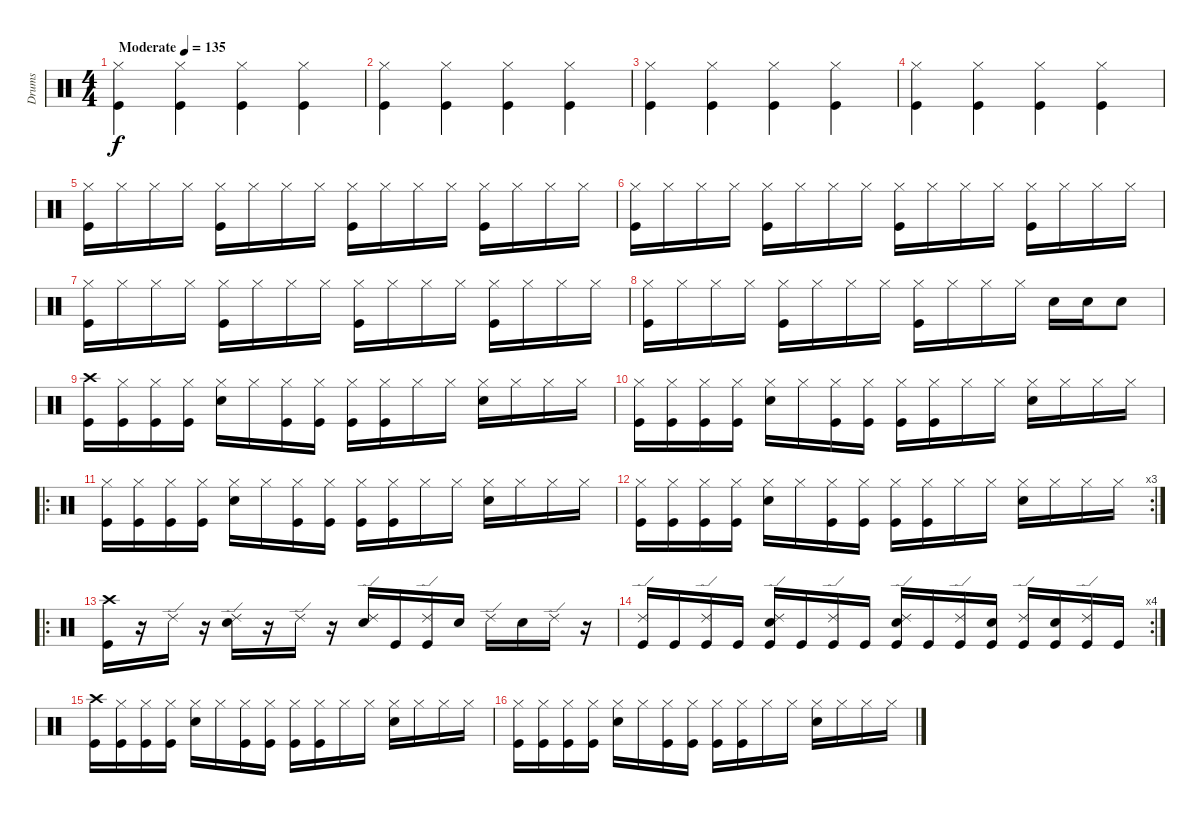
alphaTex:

\track ("Drums" "Drums") {instrument percussion}
\staff {score}
\articulation defaults
\ts (4 4)
\tempo (135 "Moderate")
\clef neutral
\ks c
("Hi-Hat (closed)" "Kick (hit)").4{dy f} ("Hi-Hat (closed)" "Kick (hit)").4 ("Hi-Hat (closed)" "Kick (hit)").4 ("Hi-Hat (closed)" "Kick (hit)").4 |
("Hi-Hat (closed)" "Kick (hit)").4 ("Hi-Hat (closed)" "Kick (hit)").4 ("Hi-Hat (closed)" "Kick (hit)").4 ("Hi-Hat (closed)" "Kick (hit)").4 |
("Hi-Hat (closed)" "Kick (hit)").4 ("Hi-Hat (closed)" "Kick (hit)").4 ("Hi-Hat (closed)" "Kick (hit)").4 ("Hi-Hat (closed)" "Kick (hit)").4 |
("Hi-Hat (closed)" "Kick (hit)").4 ("Hi-Hat (closed)" "Kick (hit)").4 ("Hi-Hat (closed)" "Kick (hit)").4 ("Hi-Hat (closed)" "Kick (hit)").4 |
("Hi-Hat (closed)" "Kick (hit)").16 "Hi-Hat (closed)".16 "Hi-Hat (closed)".16 "Hi-Hat (closed)".16 ("Hi-Hat (closed)" "Kick (hit)").16 "Hi-Hat (closed)".16 "Hi-Hat (closed)".16 "Hi-Hat (closed)".16 ("Hi-Hat (closed)" "Kick (hit)").16 "Hi-Hat (closed)".16 "Hi-Hat (closed)".16 "Hi-Hat (closed)".16 ("Hi-Hat (closed)" "Kick (hit)").16 "Hi-Hat (closed)".16 "Hi-Hat (closed)".16 "Hi-Hat (closed)".16 |
("Hi-Hat (closed)" "Kick (hit)").16 "Hi-Hat (closed)".16 "Hi-Hat (closed)".16 "Hi-Hat (closed)".16 ("Hi-Hat (closed)" "Kick (hit)").16 "Hi-Hat (closed)".16 "Hi-Hat (closed)".16 "Hi-Hat (closed)".16 ("Hi-Hat (closed)" "Kick (hit)").16 "Hi-Hat (closed)".16 "Hi-Hat (closed)".16 "Hi-Hat (closed)".16 ("Hi-Hat (closed)" "Kick (hit)").16 "Hi-Hat (closed)".16 "Hi-Hat (closed)".16 "Hi-Hat (closed)".16 |
("Hi-Hat (closed)" "Kick (hit)").16 "Hi-Hat (closed)".16 "Hi-Hat (closed)".16 "Hi-Hat (closed)".16 ("Hi-Hat (closed)" "Kick (hit)").16 "Hi-Hat (closed)".16 "Hi-Hat (closed)".16 "Hi-Hat (closed)".16 ("Hi-Hat (closed)" "Kick (hit)").16 "Hi-Hat (closed)".16 "Hi-Hat (closed)".16 "Hi-Hat (closed)".16 ("Hi-Hat (closed)" "Kick (hit)").16 "Hi-Hat (closed)".16 "Hi-Hat (closed)".16 "Hi-Hat (closed)".16 |
("Hi-Hat (closed)" "Kick (hit)").16 "Hi-Hat (closed)".16 "Hi-Hat (closed)".16 "Hi-Hat (closed)".16 ("Hi-Hat (closed)" "Kick (hit)").16 "Hi-Hat (closed)".16 "Hi-Hat (closed)".16 "Hi-Hat (closed)".16 ("Hi-Hat (closed)" "Kick (hit)").16 "Hi-Hat (closed)".16 "Hi-Hat (closed)".16 "Hi-Hat (closed)".16 "Snare (hit) 2".16 "Snare (hit) 2".16 "Snare (hit) 2".8 |
("Crash high (hit)" "Kick (hit)").16 ("Hi-Hat (closed)" "Kick (hit)").16 ("Hi-Hat (closed)" "Kick (hit)").16 ("Hi-Hat (closed)" "Kick (hit)").16 ("Hi-Hat (closed)" "Snare (hit) 2").16 "Hi-Hat (closed)".16 ("Hi-Hat (closed)" "Kick (hit)").16 ("Hi-Hat (closed)" "Kick (hit)").16 ("Hi-Hat (closed)" "Kick (hit)").16 ("Hi-Hat (closed)" "Kick (hit)").16 "Hi-Hat (closed)".16 "Hi-Hat (closed)".16 ("Hi-Hat (closed)" "Snare (hit) 2").16 "Hi-Hat (closed)".16 "Hi-Hat (closed)".16 "Hi-Hat (closed)".16 |
("Hi-Hat (closed)" "Kick (hit)").16 ("Hi-Hat (closed)" "Kick (hit)").16 ("Hi-Hat (closed)" "Kick (hit)").16 ("Hi-Hat (closed)" "Kick (hit)").16 ("Hi-Hat (closed)" "Snare (hit) 2").16 "Hi-Hat (closed)".16 ("Hi-Hat (closed)" "Kick (hit)").16 ("Hi-Hat (closed)" "Kick (hit)").16 ("Hi-Hat (closed)" "Kick (hit)").16 ("Hi-Hat (closed)" "Kick (hit)").16 "Hi-Hat (closed)".16 "Hi-Hat (closed)".16 ("Hi-Hat (closed)" "Snare (hit) 2").16 "Hi-Hat (closed)".16 "Hi-Hat (closed)".16 "Hi-Hat (closed)".16 |
\ro
("Hi-Hat (closed)" "Kick (hit)").16 ("Hi-Hat (closed)" "Kick (hit)").16 ("Hi-Hat (closed)" "Kick (hit)").16 ("Hi-Hat (closed)" "Kick (hit)").16 ("Hi-Hat (closed)" "Snare (hit) 2").16 "Hi-Hat (closed)".16 ("Hi-Hat (closed)" "Kick (hit)").16 ("Hi-Hat (closed)" "Kick (hit)").16 ("Hi-Hat (closed)" "Kick (hit)").16 ("Hi-Hat (closed)" "Kick (hit)").16 "Hi-Hat (closed)".16 "Hi-Hat (closed)".16 ("Hi-Hat (closed)" "Snare (hit) 2").16 "Hi-Hat (closed)".16 "Hi-Hat (closed)".16 "Hi-Hat (closed)".16 |
\rc 3
("Hi-Hat (closed)" "Kick (hit)").16 ("Hi-Hat (closed)" "Kick (hit)").16 ("Hi-Hat (closed)" "Kick (hit)").16 ("Hi-Hat (closed)" "Kick (hit)").16 ("Hi-Hat (closed)" "Snare (hit) 2").16 "Hi-Hat (closed)".16 ("Hi-Hat (closed)" "Kick (hit)").16 ("Hi-Hat (closed)" "Kick (hit)").16 ("Hi-Hat (closed)" "Kick (hit)").16 ("Hi-Hat (closed)" "Kick (hit)").16 "Hi-Hat (closed)".16 "Hi-Hat (closed)".16 ("Hi-Hat (closed)" "Snare (hit) 2").16 "Hi-Hat (closed)".16 "Hi-Hat (closed)".16 "Hi-Hat (closed)".16 |
\ro
("Crash high (hit)" "Kick (hit)").16 r.16 "Ride (edge) 2".16 r.16 ("Ride (edge) 2" "Snare (hit) 2").16 r.16 "Ride (edge) 2".16 r.16 ("Ride (edge) 2" "Snare (hit) 2").16 "Kick (hit)".16 ("Ride (edge) 2" "Kick (hit)").16 "Snare (hit) 2".16 "Ride (edge) 2".16 "Snare (hit) 2".16 "Ride (edge) 2".16 r.16 |
\rc 4
("Ride (edge) 2" "Kick (hit)").16 "Kick (hit)".16 ("Ride (edge) 2" "Kick (hit)").16 "Kick (hit)".16 ("Ride (edge) 2" "Snare (hit) 2" "Kick (hit)").16 "Kick (hit)".16 ("Ride (edge) 2" "Kick (hit)").16 "Kick (hit)".16 ("Ride (edge) 2" "Snare (hit) 2" "Kick (hit)").16 "Kick (hit)".16 ("Ride (edge) 2" "Kick (hit)").16 ("Snare (hit) 2" "Kick (hit)").16 ("Ride (edge) 2" "Kick (hit)").16 ("Snare (hit) 2" "Kick (hit)").16 ("Ride (edge) 2" "Kick (hit)").16 "Kick (hit)".16 |
("Crash high (hit)" "Kick (hit)").16 ("Hi-Hat (closed)" "Kick (hit)").16 ("Hi-Hat (closed)" "Kick (hit)").16 ("Hi-Hat (closed)" "Kick (hit)").16 ("Hi-Hat (closed)" "Snare (hit) 2").16 "Hi-Hat (closed)".16 ("Hi-Hat (closed)" "Kick (hit)").16 ("Hi-Hat (closed)" "Kick (hit)").16 ("Hi-Hat (closed)" "Kick (hit)").16 ("Hi-Hat (closed)" "Kick (hit)").16 "Hi-Hat (closed)".16 "Hi-Hat (closed)".16 ("Hi-Hat (closed)" "Snare (hit) 2").16 "Hi-Hat (closed)".16 "Hi-Hat (closed)".16 "Hi-Hat (closed)".16 |
("Hi-Hat (closed)" "Kick (hit)").16 ("Hi-Hat (closed)" "Kick (hit)").16 ("Hi-Hat (closed)" "Kick (hit)").16 ("Hi-Hat (closed)" "Kick (hit)").16 ("Hi-Hat (closed)" "Snare (hit) 2").16 "Hi-Hat (closed)".16 ("Hi-Hat (closed)" "Kick (hit)").16 ("Hi-Hat (closed)" "Kick (hit)").16 ("Hi-Hat (closed)" "Kick (hit)").16 ("Hi-Hat (closed)" "Kick (hit)").16 "Hi-Hat (closed)".16 "Hi-Hat (closed)".16 ("Hi-Hat (closed)" "Snare (hit) 2").16 "Hi-Hat (closed)".16 "Hi-Hat (closed)".16 "Hi-Hat (closed)".16
